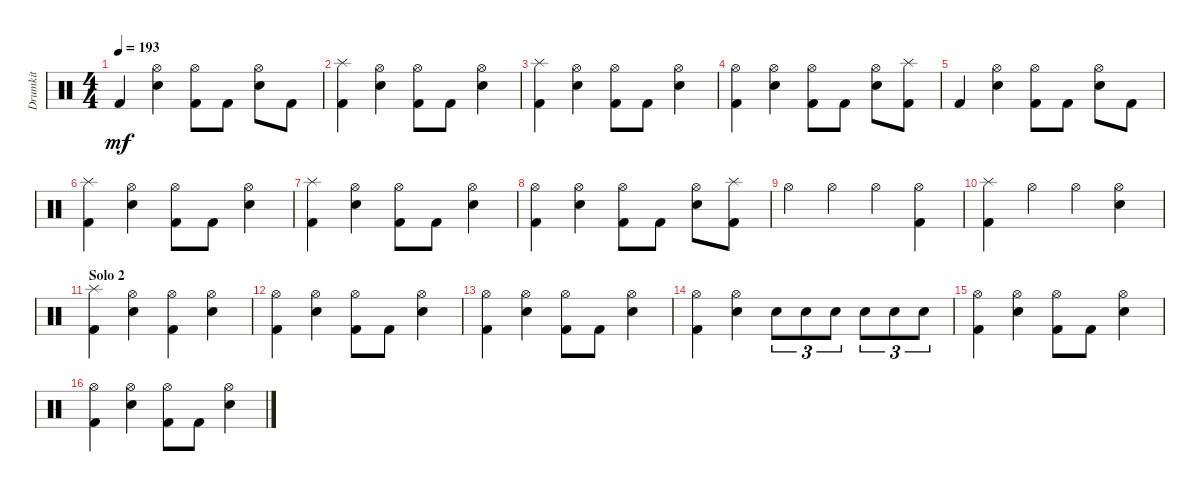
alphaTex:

\track ("Drumkit" "Drumkit") {instrument percussion}
\staff {score}
\articulation defaults
\ts (4 4)
\tempo 193
\clef neutral
\ks c "Kick (hit) 2".4{dy mf}
("Snare (hit) 2" "Hi-Hat (open)").4 ("Kick (hit) 2" "Hi-Hat (open)").8 "Kick (hit) 2".8 ("Snare (hit) 2" "Hi-Hat (open)").8 "Kick (hit) 2".8 |
("Kick (hit) 2" "Splash (hit)").4 ("Snare (hit) 2" "Hi-Hat (open)").4 ("Kick (hit) 2" "Hi-Hat (open)").8 "Kick (hit) 2".8 ("Snare (hit) 2" "Hi-Hat (open)").4 |
("Kick (hit) 2" "Splash (hit)").4 ("Snare (hit) 2" "Hi-Hat (open)").4 ("Kick (hit) 2" "Hi-Hat (open)").8 "Kick (hit) 2".8 ("Snare (hit) 2" "Hi-Hat (open)").4 |
("Kick (hit) 2" "Hi-Hat (open)").4 ("Snare (hit) 2" "Hi-Hat (open)").4 ("Kick (hit) 2" "Hi-Hat (open)").8 "Kick (hit) 2".8 ("Snare (hit) 2" "Hi-Hat (open)").8 ("Kick (hit) 2" "Splash (hit)").8 |
"Kick (hit) 2".4 ("Snare (hit) 2" "Hi-Hat (open)").4 ("Kick (hit) 2" "Hi-Hat (open)").8 "Kick (hit) 2".8 ("Snare (hit) 2" "Hi-Hat (open)").8 "Kick (hit) 2".8 |
("Kick (hit) 2" "Splash (hit)").4 ("Snare (hit) 2" "Hi-Hat (open)").4 ("Kick (hit) 2" "Hi-Hat (open)").8 "Kick (hit) 2".8 ("Snare (hit) 2" "Hi-Hat (open)").4 |
("Kick (hit) 2" "Splash (hit)").4 ("Snare (hit) 2" "Hi-Hat (open)").4 ("Kick (hit) 2" "Hi-Hat (open)").8 "Kick (hit) 2".8 ("Snare (hit) 2" "Hi-Hat (open)").4 |
("Kick (hit) 2" "Hi-Hat (open)").4 ("Snare (hit) 2" "Hi-Hat (open)").4 ("Kick (hit) 2" "Hi-Hat (open)").8 "Kick (hit) 2".8 ("Snare (hit) 2" "Hi-Hat (open)").8 ("Kick (hit) 2" "Splash (hit)").8 |
"Hi-Hat (open)".4 "Hi-Hat (open)".4 "Hi-Hat (open)".4 ("Hi-Hat (open)" "Kick (hit) 2").4 |
("Kick (hit) 2" "Splash (hit)").4 "Hi-Hat (open)".4 "Hi-Hat (open)".4 ("Hi-Hat (open)" "Snare (hit) 2").4 |
\section ("" "Solo 2")
("Kick (hit) 2" "Splash (hit)").4 ("Snare (hit) 2" "Hi-Hat (open)").4 ("Kick (hit) 2" "Hi-Hat (open)").4 ("Snare (hit) 2" "Hi-Hat (open)").4 |
("Kick (hit) 2" "Hi-Hat (open)").4 ("Snare (hit) 2" "Hi-Hat (open)").4 ("Kick (hit) 2" "Hi-Hat (open)").8 "Kick (hit) 2".8 ("Snare (hit) 2" "Hi-Hat (open)").4 |
("Kick (hit) 2" "Hi-Hat (open)").4 ("Snare (hit) 2" "Hi-Hat (open)").4 ("Kick (hit) 2" "Hi-Hat (open)").8 "Kick (hit) 2".8 ("Snare (hit) 2" "Hi-Hat (open)").4 |
("Kick (hit) 2" "Hi-Hat (open)").4 ("Snare (hit) 2" "Hi-Hat (open)").4 "Snare (hit) 2".8{tu (3 2)} "Snare (hit) 2".8{tu (3 2)} "Snare (hit) 2".8{tu (3 2)} "Snare (hit) 2".8{tu (3 2)} "Snare (hit) 2".8{tu (3 2)} "Snare (hit) 2".8{tu (3 2)} |
("Kick (hit) 2" "Hi-Hat (open)").4 ("Snare (hit) 2" "Hi-Hat (open)").4 ("Kick (hit) 2" "Hi-Hat (open)").8 "Kick (hit) 2".8 ("Snare (hit) 2" "Hi-Hat (open)").4 |
("Kick (hit) 2" "Hi-Hat (open)").4 ("Snare (hit) 2" "Hi-Hat (open)").4 ("Kick (hit) 2" "Hi-Hat (open)").8 "Kick (hit) 2".8 ("Snare (hit) 2" "Hi-Hat (open)").4
